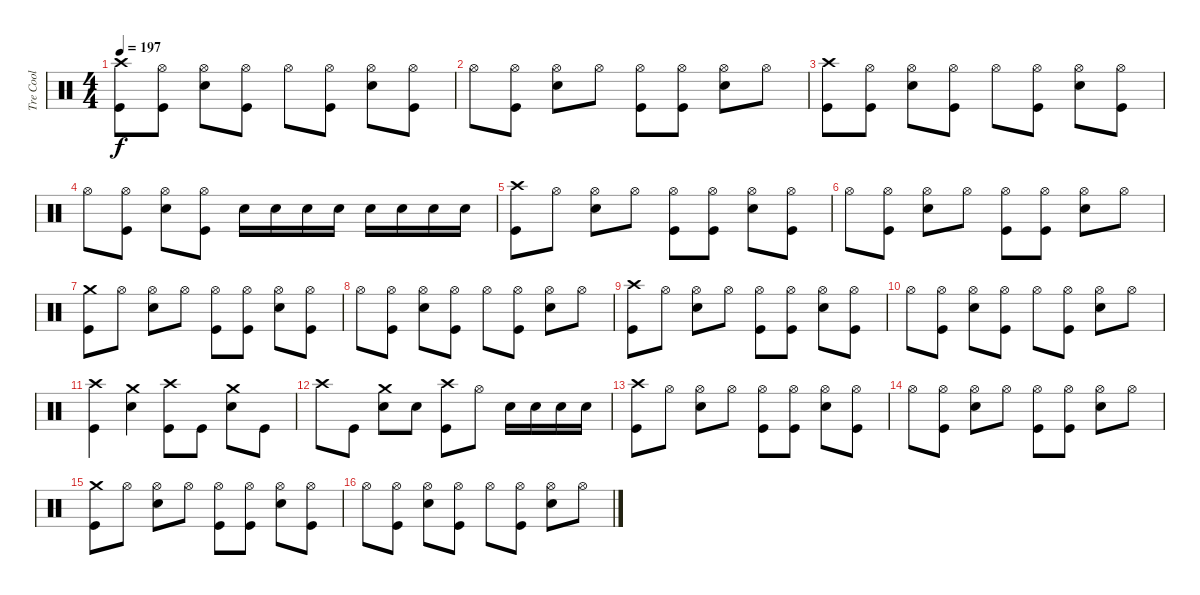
\track ("Tre Cool" "Tre Cool") {instrument percussion}
\staff {score}
\articulation defaults
\ts (4 4)
\tempo 197
\clef neutral
\ks c
("Crash high (hit)" "Kick (hit)").8{dy f} ("Hi-Hat (open)" "Kick (hit)").8 ("Hi-Hat (open)" "Electric Snare (hit)").8 ("Hi-Hat (open)" "Kick (hit)").8 "Hi-Hat (open)".8 ("Hi-Hat (open)" "Kick (hit)").8 ("Hi-Hat (open)" "Electric Snare (hit)").8 ("Hi-Hat (open)" "Kick (hit)").8 |
"Hi-Hat (open)".8 ("Hi-Hat (open)" "Kick (hit)").8 ("Hi-Hat (open)" "Electric Snare (hit)").8 "Hi-Hat (open)".8 ("Hi-Hat (open)" "Kick (hit)").8 ("Hi-Hat (open)" "Kick (hit)").8 ("Hi-Hat (open)" "Electric Snare (hit)").8 "Hi-Hat (open)".8 |
("Crash high (hit)" "Kick (hit)").8 ("Hi-Hat (open)" "Kick (hit)").8 ("Hi-Hat (open)" "Electric Snare (hit)").8 ("Hi-Hat (open)" "Kick (hit)").8 "Hi-Hat (open)".8 ("Hi-Hat (open)" "Kick (hit)").8 ("Hi-Hat (open)" "Electric Snare (hit)").8 ("Hi-Hat (open)" "Kick (hit)").8 |
"Hi-Hat (open)".8 ("Hi-Hat (open)" "Kick (hit)").8 ("Hi-Hat (open)" "Electric Snare (hit)").8 ("Hi-Hat (open)" "Kick (hit)").8 "Electric Snare (hit)".16 "Electric Snare (hit)".16 "Electric Snare (hit)".16 "Electric Snare (hit)".16 "Electric Snare (hit)".16 "Electric Snare (hit)".16 "Electric Snare (hit)".16 "Electric Snare (hit)".16 |
("Crash high (hit)" "Kick (hit)").8 "Hi-Hat (open)".8 ("Hi-Hat (open)" "Electric Snare (hit)").8 "Hi-Hat (open)".8 ("Hi-Hat (open)" "Kick (hit)").8 ("Hi-Hat (open)" "Kick (hit)").8 ("Hi-Hat (open)" "Electric Snare (hit)").8 ("Hi-Hat (open)" "Kick (hit)").8 |
"Hi-Hat (open)".8 ("Hi-Hat (open)" "Kick (hit)").8 ("Hi-Hat (open)" "Electric Snare (hit)").8 "Hi-Hat (open)".8 ("Hi-Hat (open)" "Kick (hit)").8 ("Hi-Hat (open)" "Kick (hit)").8 ("Hi-Hat (open)" "Electric Snare (hit)").8 "Hi-Hat (open)".8 |
("Crash medium (hit)" "Kick (hit)").8 "Hi-Hat (open)".8 ("Hi-Hat (open)" "Electric Snare (hit)").8 "Hi-Hat (open)".8 ("Hi-Hat (open)" "Kick (hit)").8 ("Hi-Hat (open)" "Kick (hit)").8 ("Hi-Hat (open)" "Electric Snare (hit)").8 ("Hi-Hat (open)" "Kick (hit)").8 |
"Hi-Hat (open)".8 ("Hi-Hat (open)" "Kick (hit)").8 ("Hi-Hat (open)" "Electric Snare (hit)").8 ("Hi-Hat (open)" "Kick (hit)").8 "Hi-Hat (open)".8 ("Hi-Hat (open)" "Kick (hit)").8 ("Hi-Hat (open)" "Electric Snare (hit)").8 "Hi-Hat (open)".8 |
("Crash high (hit)" "Kick (hit)").8 "Hi-Hat (open)".8 ("Hi-Hat (open)" "Electric Snare (hit)").8 "Hi-Hat (open)".8 ("Hi-Hat (open)" "Kick (hit)").8 ("Hi-Hat (open)" "Kick (hit)").8 ("Hi-Hat (open)" "Electric Snare (hit)").8 ("Hi-Hat (open)" "Kick (hit)").8 |
"Hi-Hat (open)".8 ("Hi-Hat (open)" "Kick (hit)").8 ("Hi-Hat (open)" "Electric Snare (hit)").8 ("Hi-Hat (open)" "Kick (hit)").8 "Hi-Hat (open)".8 ("Hi-Hat (open)" "Kick (hit)").8 ("Hi-Hat (open)" "Electric Snare (hit)").8 "Hi-Hat (open)".8 |
("Crash high (hit)" "Kick (hit)").4 ("Crash medium (hit)" "Electric Snare (hit)").4 ("Crash high (hit)" "Kick (hit)").8 "Kick (hit)".8 ("Crash medium (hit)" "Electric Snare (hit)").8 "Kick (hit)".8 |
"Crash high (hit)".8 "Kick (hit)".8 ("Crash medium (hit)" "Electric Snare (hit)").8 "Electric Snare (hit)".8 ("Crash high (hit)" "Kick (hit)").8 "Hi-Hat (open)".8 "Electric Snare (hit)".16 "Electric Snare (hit)".16 "Electric Snare (hit)".16 "Electric Snare (hit)".16 |
("Crash high (hit)" "Kick (hit)").8 "Hi-Hat (open)".8 ("Hi-Hat (open)" "Electric Snare (hit)").8 "Hi-Hat (open)".8 ("Hi-Hat (open)" "Kick (hit)").8 ("Hi-Hat (open)" "Kick (hit)").8 ("Hi-Hat (open)" "Electric Snare (hit)").8 ("Hi-Hat (open)" "Kick (hit)").8 |
"Hi-Hat (open)".8 ("Hi-Hat (open)" "Kick (hit)").8 ("Hi-Hat (open)" "Electric Snare (hit)").8 "Hi-Hat (open)".8 ("Hi-Hat (open)" "Kick (hit)").8 ("Hi-Hat (open)" "Kick (hit)").8 ("Hi-Hat (open)" "Electric Snare (hit)").8 "Hi-Hat (open)".8 |
("Crash medium (hit)" "Kick (hit)").8 "Hi-Hat (open)".8 ("Hi-Hat (open)" "Electric Snare (hit)").8 "Hi-Hat (open)".8 ("Hi-Hat (open)" "Kick (hit)").8 ("Hi-Hat (open)" "Kick (hit)").8 ("Hi-Hat (open)" "Electric Snare (hit)").8 ("Hi-Hat (open)" "Kick (hit)").8 |
"Hi-Hat (open)".8 ("Hi-Hat (open)" "Kick (hit)").8 ("Hi-Hat (open)" "Electric Snare (hit)").8 ("Hi-Hat (open)" "Kick (hit)").8 "Hi-Hat (open)".8 ("Hi-Hat (open)" "Kick (hit)").8 ("Hi-Hat (open)" "Electric Snare (hit)").8 "Hi-Hat (open)".8
